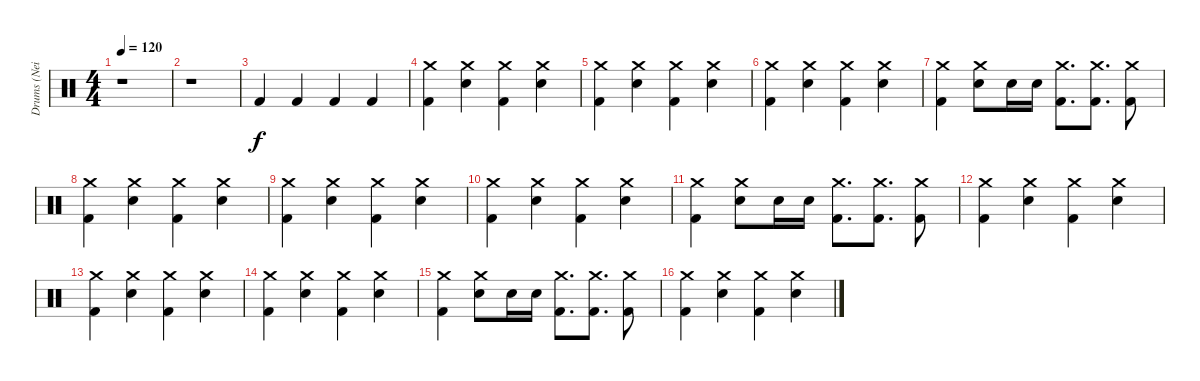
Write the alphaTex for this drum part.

\track ("Drums (Neil)" "Drums (Nei") {instrument percussion}
\staff {score}
\articulation defaults
\ts (4 4)
\tempo 120
\clef neutral
\ks c
r.1{dy f} |
r.1 |
"Kick (hit) 2".4 "Kick (hit) 2".4 "Kick (hit) 2".4 "Kick (hit) 2".4 |
("Crash medium (hit)" "Kick (hit) 2").4 ("Crash medium (hit)" "Electric Snare (hit)").4 ("Crash medium (hit)" "Kick (hit) 2").4 ("Crash medium (hit)" "Electric Snare (hit)").4 |
("Crash medium (hit)" "Kick (hit) 2").4 ("Crash medium (hit)" "Electric Snare (hit)").4 ("Crash medium (hit)" "Kick (hit) 2").4 ("Crash medium (hit)" "Electric Snare (hit)").4 |
("Crash medium (hit)" "Kick (hit) 2").4 ("Crash medium (hit)" "Electric Snare (hit)").4 ("Crash medium (hit)" "Kick (hit) 2").4 ("Crash medium (hit)" "Electric Snare (hit)").4 |
("Crash medium (hit)" "Kick (hit) 2").4 ("Crash medium (hit)" "Electric Snare (hit)").8 "Electric Snare (hit)".16 "Electric Snare (hit)".16 ("Crash medium (hit)" "Kick (hit) 2").8{d} ("Crash medium (hit)" "Kick (hit) 2").8{d} ("Crash medium (hit)" "Kick (hit) 2").8 |
("Crash medium (hit)" "Kick (hit) 2").4 ("Crash medium (hit)" "Electric Snare (hit)").4 ("Crash medium (hit)" "Kick (hit) 2").4 ("Crash medium (hit)" "Electric Snare (hit)").4 |
("Crash medium (hit)" "Kick (hit) 2").4 ("Crash medium (hit)" "Electric Snare (hit)").4 ("Crash medium (hit)" "Kick (hit) 2").4 ("Crash medium (hit)" "Electric Snare (hit)").4 |
("Crash medium (hit)" "Kick (hit) 2").4 ("Crash medium (hit)" "Electric Snare (hit)").4 ("Crash medium (hit)" "Kick (hit) 2").4 ("Crash medium (hit)" "Electric Snare (hit)").4 |
("Crash medium (hit)" "Kick (hit) 2").4 ("Crash medium (hit)" "Electric Snare (hit)").8 "Electric Snare (hit)".16 "Electric Snare (hit)".16 ("Crash medium (hit)" "Kick (hit) 2").8{d} ("Crash medium (hit)" "Kick (hit) 2").8{d} ("Crash medium (hit)" "Kick (hit) 2").8 |
("Crash medium (hit)" "Kick (hit) 2").4 ("Crash medium (hit)" "Electric Snare (hit)").4 ("Crash medium (hit)" "Kick (hit) 2").4 ("Crash medium (hit)" "Electric Snare (hit)").4 |
("Crash medium (hit)" "Kick (hit) 2").4 ("Crash medium (hit)" "Electric Snare (hit)").4 ("Crash medium (hit)" "Kick (hit) 2").4 ("Crash medium (hit)" "Electric Snare (hit)").4 |
("Crash medium (hit)" "Kick (hit) 2").4 ("Crash medium (hit)" "Electric Snare (hit)").4 ("Crash medium (hit)" "Kick (hit) 2").4 ("Crash medium (hit)" "Electric Snare (hit)").4 |
("Crash medium (hit)" "Kick (hit) 2").4 ("Crash medium (hit)" "Electric Snare (hit)").8 "Electric Snare (hit)".16 "Electric Snare (hit)".16 ("Crash medium (hit)" "Kick (hit) 2").8{d} ("Crash medium (hit)" "Kick (hit) 2").8{d} ("Crash medium (hit)" "Kick (hit) 2").8 |
("Crash medium (hit)" "Kick (hit) 2").4 ("Crash medium (hit)" "Electric Snare (hit)").4 ("Crash medium (hit)" "Kick (hit) 2").4 ("Crash medium (hit)" "Electric Snare (hit)").4
